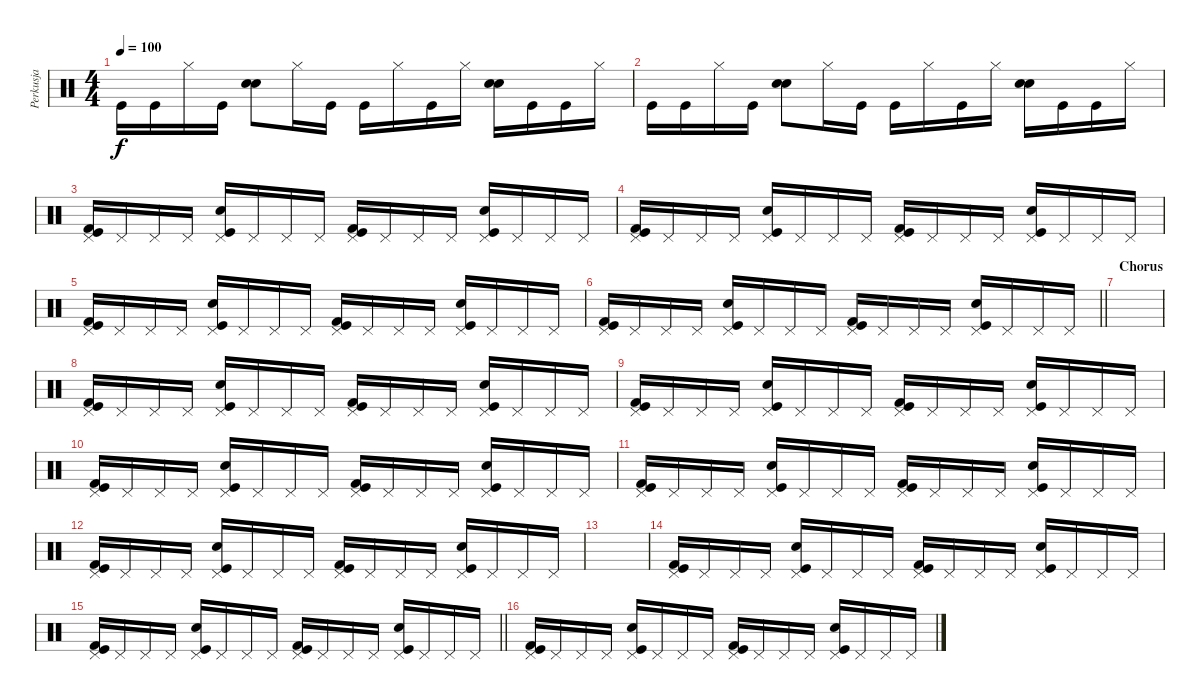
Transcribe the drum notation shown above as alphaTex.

\track ("Perkusja" "Perkusja") {instrument percussion}
\staff {score}
\articulation defaults
\ts (4 4)
\tempo 100
\clef neutral
\ks c "Kick (hit)".16{dy f} "Kick (hit)".16 "Hi-Hat (closed)".16 "Kick (hit)".16
("Snare (hit) 2" "Hand Clap (hit)").8 "Hi-Hat (closed)".16 "Kick (hit)".16 "Kick (hit)".16 "Hi-Hat (closed)".16 "Kick (hit)".16 "Hi-Hat (closed)".16 ("Snare (hit) 2" "Hand Clap (hit)").16 "Kick (hit)".16 "Kick (hit)".16 "Hi-Hat (closed)".16 |
"Kick (hit)".16 "Kick (hit)".16 "Hi-Hat (closed)".16 "Kick (hit)".16 ("Snare (hit) 2" "Hand Clap (hit)").8 "Hi-Hat (closed)".16 "Kick (hit)".16 "Kick (hit)".16 "Hi-Hat (closed)".16 "Kick (hit)".16 "Hi-Hat (closed)".16 ("Snare (hit) 2" "Hand Clap (hit)").16 "Kick (hit)".16 "Kick (hit)".16 "Hi-Hat (closed)".16 |
("Pedal Hi-Hat (hit)" "Kick (hit)" "Kick (hit) 2").16 "Pedal Hi-Hat (hit)".16 "Pedal Hi-Hat (hit)".16 "Pedal Hi-Hat (hit)".16 ("Pedal Hi-Hat (hit)" "Hand Clap (hit)" "Kick (hit)").16 "Pedal Hi-Hat (hit)".16 "Pedal Hi-Hat (hit)".16 "Pedal Hi-Hat (hit)".16 ("Pedal Hi-Hat (hit)" "Kick (hit)" "Kick (hit) 2").16 "Pedal Hi-Hat (hit)".16 "Pedal Hi-Hat (hit)".16 "Pedal Hi-Hat (hit)".16 ("Pedal Hi-Hat (hit)" "Hand Clap (hit)" "Kick (hit)").16 "Pedal Hi-Hat (hit)".16 "Pedal Hi-Hat (hit)".16 "Pedal Hi-Hat (hit)".16 |
("Pedal Hi-Hat (hit)" "Kick (hit)" "Kick (hit) 2").16 "Pedal Hi-Hat (hit)".16 "Pedal Hi-Hat (hit)".16 "Pedal Hi-Hat (hit)".16 ("Pedal Hi-Hat (hit)" "Hand Clap (hit)" "Kick (hit)").16 "Pedal Hi-Hat (hit)".16 "Pedal Hi-Hat (hit)".16 "Pedal Hi-Hat (hit)".16 ("Pedal Hi-Hat (hit)" "Kick (hit)" "Kick (hit) 2").16 "Pedal Hi-Hat (hit)".16 "Pedal Hi-Hat (hit)".16 "Pedal Hi-Hat (hit)".16 ("Pedal Hi-Hat (hit)" "Hand Clap (hit)" "Kick (hit)").16 "Pedal Hi-Hat (hit)".16 "Pedal Hi-Hat (hit)".16 "Pedal Hi-Hat (hit)".16 |
("Pedal Hi-Hat (hit)" "Kick (hit)" "Kick (hit) 2").16 "Pedal Hi-Hat (hit)".16 "Pedal Hi-Hat (hit)".16 "Pedal Hi-Hat (hit)".16 ("Pedal Hi-Hat (hit)" "Hand Clap (hit)" "Kick (hit)").16 "Pedal Hi-Hat (hit)".16 "Pedal Hi-Hat (hit)".16 "Pedal Hi-Hat (hit)".16 ("Pedal Hi-Hat (hit)" "Kick (hit)" "Kick (hit) 2").16 "Pedal Hi-Hat (hit)".16 "Pedal Hi-Hat (hit)".16 "Pedal Hi-Hat (hit)".16 ("Pedal Hi-Hat (hit)" "Hand Clap (hit)" "Kick (hit)").16 "Pedal Hi-Hat (hit)".16 "Pedal Hi-Hat (hit)".16 "Pedal Hi-Hat (hit)".16 |
\barLineRight lightlight
("Pedal Hi-Hat (hit)" "Kick (hit)" "Kick (hit) 2").16 "Pedal Hi-Hat (hit)".16 "Pedal Hi-Hat (hit)".16 "Pedal Hi-Hat (hit)".16 ("Pedal Hi-Hat (hit)" "Hand Clap (hit)" "Kick (hit)").16 "Pedal Hi-Hat (hit)".16 "Pedal Hi-Hat (hit)".16 "Pedal Hi-Hat (hit)".16 ("Pedal Hi-Hat (hit)" "Kick (hit)" "Kick (hit) 2").16 "Pedal Hi-Hat (hit)".16 "Pedal Hi-Hat (hit)".16 "Pedal Hi-Hat (hit)".16 ("Pedal Hi-Hat (hit)" "Hand Clap (hit)" "Kick (hit)").16 "Pedal Hi-Hat (hit)".16 "Pedal Hi-Hat (hit)".16 "Pedal Hi-Hat (hit)".16 |
\section ("" "Chorus")
|
("Pedal Hi-Hat (hit)" "Kick (hit)" "Kick (hit) 2").16 "Pedal Hi-Hat (hit)".16 "Pedal Hi-Hat (hit)".16 "Pedal Hi-Hat (hit)".16 ("Pedal Hi-Hat (hit)" "Hand Clap (hit)" "Kick (hit)").16 "Pedal Hi-Hat (hit)".16 "Pedal Hi-Hat (hit)".16 "Pedal Hi-Hat (hit)".16 ("Pedal Hi-Hat (hit)" "Kick (hit)" "Kick (hit) 2").16 "Pedal Hi-Hat (hit)".16 "Pedal Hi-Hat (hit)".16 "Pedal Hi-Hat (hit)".16 ("Pedal Hi-Hat (hit)" "Hand Clap (hit)" "Kick (hit)").16 "Pedal Hi-Hat (hit)".16 "Pedal Hi-Hat (hit)".16 "Pedal Hi-Hat (hit)".16 |
("Pedal Hi-Hat (hit)" "Kick (hit)" "Kick (hit) 2").16 "Pedal Hi-Hat (hit)".16 "Pedal Hi-Hat (hit)".16 "Pedal Hi-Hat (hit)".16 ("Pedal Hi-Hat (hit)" "Hand Clap (hit)" "Kick (hit)").16 "Pedal Hi-Hat (hit)".16 "Pedal Hi-Hat (hit)".16 "Pedal Hi-Hat (hit)".16 ("Pedal Hi-Hat (hit)" "Kick (hit)" "Kick (hit) 2").16 "Pedal Hi-Hat (hit)".16 "Pedal Hi-Hat (hit)".16 "Pedal Hi-Hat (hit)".16 ("Pedal Hi-Hat (hit)" "Hand Clap (hit)" "Kick (hit)").16 "Pedal Hi-Hat (hit)".16 "Pedal Hi-Hat (hit)".16 "Pedal Hi-Hat (hit)".16 |
("Pedal Hi-Hat (hit)" "Kick (hit)" "Kick (hit) 2").16 "Pedal Hi-Hat (hit)".16 "Pedal Hi-Hat (hit)".16 "Pedal Hi-Hat (hit)".16 ("Pedal Hi-Hat (hit)" "Hand Clap (hit)" "Kick (hit)").16 "Pedal Hi-Hat (hit)".16 "Pedal Hi-Hat (hit)".16 "Pedal Hi-Hat (hit)".16 ("Pedal Hi-Hat (hit)" "Kick (hit)" "Kick (hit) 2").16 "Pedal Hi-Hat (hit)".16 "Pedal Hi-Hat (hit)".16 "Pedal Hi-Hat (hit)".16 ("Pedal Hi-Hat (hit)" "Hand Clap (hit)" "Kick (hit)").16 "Pedal Hi-Hat (hit)".16 "Pedal Hi-Hat (hit)".16 "Pedal Hi-Hat (hit)".16 |
("Pedal Hi-Hat (hit)" "Kick (hit)" "Kick (hit) 2").16 "Pedal Hi-Hat (hit)".16 "Pedal Hi-Hat (hit)".16 "Pedal Hi-Hat (hit)".16 ("Pedal Hi-Hat (hit)" "Hand Clap (hit)" "Kick (hit)").16 "Pedal Hi-Hat (hit)".16 "Pedal Hi-Hat (hit)".16 "Pedal Hi-Hat (hit)".16 ("Pedal Hi-Hat (hit)" "Kick (hit)" "Kick (hit) 2").16 "Pedal Hi-Hat (hit)".16 "Pedal Hi-Hat (hit)".16 "Pedal Hi-Hat (hit)".16 ("Pedal Hi-Hat (hit)" "Hand Clap (hit)" "Kick (hit)").16 "Pedal Hi-Hat (hit)".16 "Pedal Hi-Hat (hit)".16 "Pedal Hi-Hat (hit)".16 |
("Pedal Hi-Hat (hit)" "Kick (hit)" "Kick (hit) 2").16 "Pedal Hi-Hat (hit)".16 "Pedal Hi-Hat (hit)".16 "Pedal Hi-Hat (hit)".16 ("Pedal Hi-Hat (hit)" "Hand Clap (hit)" "Kick (hit)").16 "Pedal Hi-Hat (hit)".16 "Pedal Hi-Hat (hit)".16 "Pedal Hi-Hat (hit)".16 ("Pedal Hi-Hat (hit)" "Kick (hit)" "Kick (hit) 2").16 "Pedal Hi-Hat (hit)".16 "Pedal Hi-Hat (hit)".16 "Pedal Hi-Hat (hit)".16 ("Pedal Hi-Hat (hit)" "Hand Clap (hit)" "Kick (hit)").16 "Pedal Hi-Hat (hit)".16 "Pedal Hi-Hat (hit)".16 "Pedal Hi-Hat (hit)".16 |
|
("Pedal Hi-Hat (hit)" "Kick (hit)" "Kick (hit) 2").16 "Pedal Hi-Hat (hit)".16 "Pedal Hi-Hat (hit)".16 "Pedal Hi-Hat (hit)".16 ("Pedal Hi-Hat (hit)" "Hand Clap (hit)" "Kick (hit)").16 "Pedal Hi-Hat (hit)".16 "Pedal Hi-Hat (hit)".16 "Pedal Hi-Hat (hit)".16 ("Pedal Hi-Hat (hit)" "Kick (hit)" "Kick (hit) 2").16 "Pedal Hi-Hat (hit)".16 "Pedal Hi-Hat (hit)".16 "Pedal Hi-Hat (hit)".16 ("Pedal Hi-Hat (hit)" "Hand Clap (hit)" "Kick (hit)").16 "Pedal Hi-Hat (hit)".16 "Pedal Hi-Hat (hit)".16 "Pedal Hi-Hat (hit)".16 |
\barLineRight lightlight
("Pedal Hi-Hat (hit)" "Kick (hit)" "Kick (hit) 2").16 "Pedal Hi-Hat (hit)".16 "Pedal Hi-Hat (hit)".16 "Pedal Hi-Hat (hit)".16 ("Pedal Hi-Hat (hit)" "Hand Clap (hit)" "Kick (hit)").16 "Pedal Hi-Hat (hit)".16 "Pedal Hi-Hat (hit)".16 "Pedal Hi-Hat (hit)".16 ("Pedal Hi-Hat (hit)" "Kick (hit)" "Kick (hit) 2").16 "Pedal Hi-Hat (hit)".16 "Pedal Hi-Hat (hit)".16 "Pedal Hi-Hat (hit)".16 ("Pedal Hi-Hat (hit)" "Hand Clap (hit)" "Kick (hit)").16 "Pedal Hi-Hat (hit)".16 "Pedal Hi-Hat (hit)".16 "Pedal Hi-Hat (hit)".16 |
("Pedal Hi-Hat (hit)" "Kick (hit)" "Kick (hit) 2").16 "Pedal Hi-Hat (hit)".16 "Pedal Hi-Hat (hit)".16 "Pedal Hi-Hat (hit)".16 ("Pedal Hi-Hat (hit)" "Hand Clap (hit)" "Kick (hit)").16 "Pedal Hi-Hat (hit)".16 "Pedal Hi-Hat (hit)".16 "Pedal Hi-Hat (hit)".16 ("Pedal Hi-Hat (hit)" "Kick (hit)" "Kick (hit) 2").16 "Pedal Hi-Hat (hit)".16 "Pedal Hi-Hat (hit)".16 "Pedal Hi-Hat (hit)".16 ("Pedal Hi-Hat (hit)" "Hand Clap (hit)" "Kick (hit)").16 "Pedal Hi-Hat (hit)".16 "Pedal Hi-Hat (hit)".16 "Pedal Hi-Hat (hit)".16
